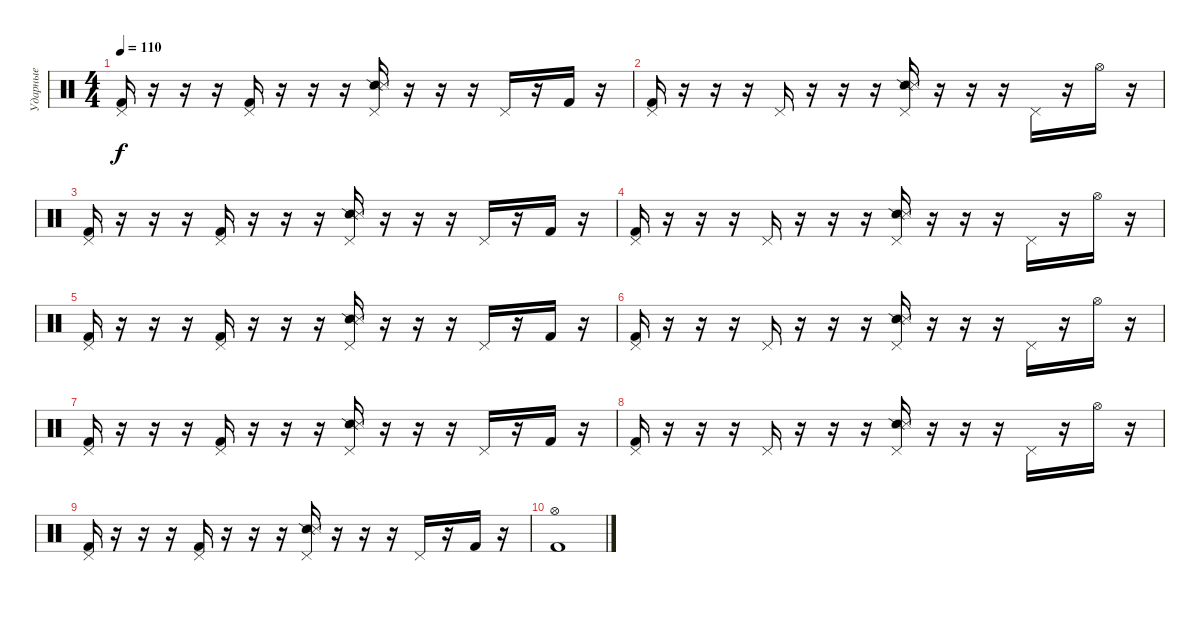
\track ("Ударные" "Ударные") {instrument percussion}
\staff {score}
\articulation defaults
\ts (4 4)
\tempo 110
\clef neutral
\ks c
("Pedal Hi-Hat (hit)" "Kick (hit) 2").16{dy f} r.16 r.16 r.16 ("Pedal Hi-Hat (hit)" "Kick (hit) 2").16 r.16 r.16 r.16 ("Pedal Hi-Hat (hit)" "Snare (side stick) 2" "Metronome (hit)").16 r.16 r.16 r.16 "Pedal Hi-Hat (hit)".16 r.16 "Kick (hit) 2".16 r.16 |
("Pedal Hi-Hat (hit)" "Kick (hit) 2").16 r.16 r.16 r.16 "Pedal Hi-Hat (hit)".16 r.16 r.16 r.16 ("Pedal Hi-Hat (hit)" "Snare (side stick) 2" "Metronome (hit)").16 r.16 r.16 r.16 "Pedal Hi-Hat (hit)".16 r.16 "Hi-Hat (open)".16 r.16 |
("Pedal Hi-Hat (hit)" "Kick (hit) 2").16 r.16 r.16 r.16 ("Pedal Hi-Hat (hit)" "Kick (hit) 2").16 r.16 r.16 r.16 ("Pedal Hi-Hat (hit)" "Snare (side stick) 2" "Metronome (hit)").16 r.16 r.16 r.16 "Pedal Hi-Hat (hit)".16 r.16 "Kick (hit) 2".16 r.16 |
("Pedal Hi-Hat (hit)" "Kick (hit) 2").16 r.16 r.16 r.16 "Pedal Hi-Hat (hit)".16 r.16 r.16 r.16 ("Pedal Hi-Hat (hit)" "Snare (side stick) 2" "Metronome (hit)").16 r.16 r.16 r.16 "Pedal Hi-Hat (hit)".16 r.16 "Hi-Hat (open)".16 r.16 |
("Pedal Hi-Hat (hit)" "Kick (hit) 2").16 r.16 r.16 r.16 ("Pedal Hi-Hat (hit)" "Kick (hit) 2").16 r.16 r.16 r.16 ("Pedal Hi-Hat (hit)" "Snare (side stick) 2" "Metronome (hit)").16 r.16 r.16 r.16 "Pedal Hi-Hat (hit)".16 r.16 "Kick (hit) 2".16 r.16 |
("Pedal Hi-Hat (hit)" "Kick (hit) 2").16 r.16 r.16 r.16 "Pedal Hi-Hat (hit)".16 r.16 r.16 r.16 ("Pedal Hi-Hat (hit)" "Snare (side stick) 2" "Metronome (hit)").16 r.16 r.16 r.16 "Pedal Hi-Hat (hit)".16 r.16 "Hi-Hat (open)".16 r.16 |
("Pedal Hi-Hat (hit)" "Kick (hit) 2").16 r.16 r.16 r.16 ("Pedal Hi-Hat (hit)" "Kick (hit) 2").16 r.16 r.16 r.16 ("Pedal Hi-Hat (hit)" "Snare (side stick) 2" "Metronome (hit)").16 r.16 r.16 r.16 "Pedal Hi-Hat (hit)".16 r.16 "Kick (hit) 2".16 r.16 |
("Pedal Hi-Hat (hit)" "Kick (hit) 2").16 r.16 r.16 r.16 "Pedal Hi-Hat (hit)".16 r.16 r.16 r.16 ("Pedal Hi-Hat (hit)" "Snare (side stick) 2" "Metronome (hit)").16 r.16 r.16 r.16 "Pedal Hi-Hat (hit)".16 r.16 "Hi-Hat (open)".16 r.16 |
("Pedal Hi-Hat (hit)" "Kick (hit) 2").16 r.16 r.16 r.16 ("Pedal Hi-Hat (hit)" "Kick (hit) 2").16 r.16 r.16 r.16 ("Pedal Hi-Hat (hit)" "Snare (side stick) 2" "Metronome (hit)").16 r.16 r.16 r.16 "Pedal Hi-Hat (hit)".16 r.16 "Kick (hit) 2".16 r.16 |
("Hi-Hat (open)" "Kick (hit) 2").1
